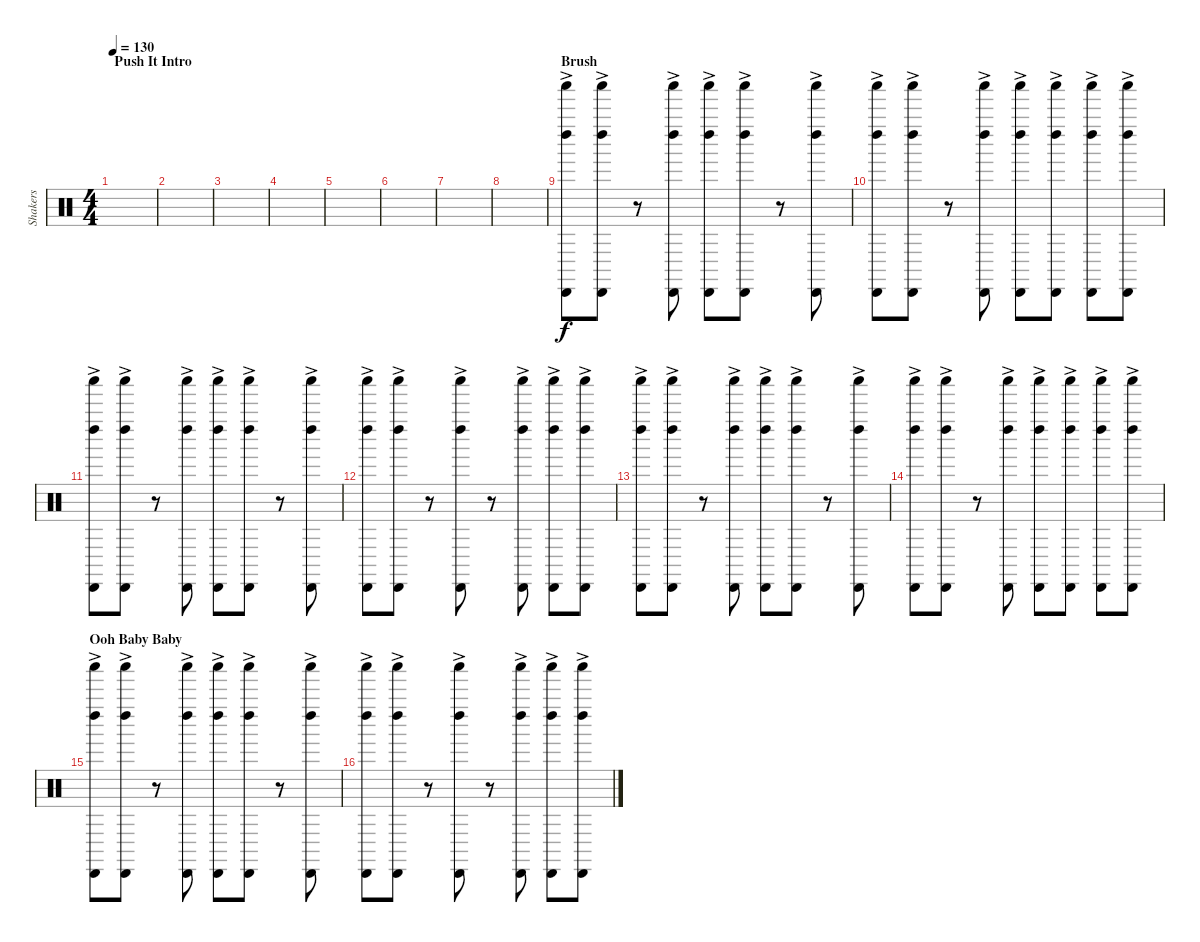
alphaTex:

\track ("Shakers" "Shakers") {instrument percussion}
\staff {score}
\articulation defaults
\ts (4 4)
\section ("" "Push It Intro")
\tempo 130
\clef neutral
\ks c
|
|
|
|
|
|
|
|
\section ("" "Brush")
("Cabasa (hit)"{ac} "Left Maraca (hit)"{ac} "Shaker (hit)"{ac}).8 ("Cabasa (hit)"{ac} "Left Maraca (hit)"{ac} "Shaker (hit)"{ac}).8 r.8 ("Cabasa (hit)"{ac} "Left Maraca (hit)"{ac} "Shaker (hit)"{ac}).8 ("Cabasa (hit)"{ac} "Left Maraca (hit)"{ac} "Shaker (hit)"{ac}).8 ("Cabasa (hit)"{ac} "Left Maraca (hit)"{ac} "Shaker (hit)"{ac}).8 r.8 ("Cabasa (hit)"{ac} "Left Maraca (hit)"{ac} "Shaker (hit)"{ac}).8 |
("Cabasa (hit)"{ac} "Left Maraca (hit)"{ac} "Shaker (hit)"{ac}).8 ("Cabasa (hit)"{ac} "Left Maraca (hit)"{ac} "Shaker (hit)"{ac}).8 r.8 ("Cabasa (hit)"{ac} "Left Maraca (hit)"{ac} "Shaker (hit)"{ac}).8 ("Cabasa (hit)"{ac} "Left Maraca (hit)"{ac} "Shaker (hit)"{ac}).8 ("Cabasa (hit)"{ac} "Left Maraca (hit)"{ac} "Shaker (hit)"{ac}).8 ("Cabasa (hit)"{ac} "Left Maraca (hit)"{ac} "Shaker (hit)"{ac}).8 ("Cabasa (hit)"{ac} "Left Maraca (hit)"{ac} "Shaker (hit)"{ac}).8 |
("Cabasa (hit)"{ac} "Left Maraca (hit)"{ac} "Shaker (hit)"{ac}).8 ("Cabasa (hit)"{ac} "Left Maraca (hit)"{ac} "Shaker (hit)"{ac}).8 r.8 ("Cabasa (hit)"{ac} "Left Maraca (hit)"{ac} "Shaker (hit)"{ac}).8 ("Cabasa (hit)"{ac} "Left Maraca (hit)"{ac} "Shaker (hit)"{ac}).8 ("Cabasa (hit)"{ac} "Left Maraca (hit)"{ac} "Shaker (hit)"{ac}).8 r.8 ("Cabasa (hit)"{ac} "Left Maraca (hit)"{ac} "Shaker (hit)"{ac}).8 |
("Cabasa (hit)"{ac} "Left Maraca (hit)"{ac} "Shaker (hit)"{ac}).8 ("Cabasa (hit)"{ac} "Left Maraca (hit)"{ac} "Shaker (hit)"{ac}).8 r.8 ("Cabasa (hit)"{ac} "Left Maraca (hit)"{ac} "Shaker (hit)"{ac}).8 r.8 ("Cabasa (hit)"{ac} "Left Maraca (hit)"{ac} "Shaker (hit)"{ac}).8 ("Cabasa (hit)"{ac} "Left Maraca (hit)"{ac} "Shaker (hit)"{ac}).8 ("Cabasa (hit)"{ac} "Left Maraca (hit)"{ac} "Shaker (hit)"{ac}).8 |
("Cabasa (hit)"{ac} "Left Maraca (hit)"{ac} "Shaker (hit)"{ac}).8 ("Cabasa (hit)"{ac} "Left Maraca (hit)"{ac} "Shaker (hit)"{ac}).8 r.8 ("Cabasa (hit)"{ac} "Left Maraca (hit)"{ac} "Shaker (hit)"{ac}).8 ("Cabasa (hit)"{ac} "Left Maraca (hit)"{ac} "Shaker (hit)"{ac}).8 ("Cabasa (hit)"{ac} "Left Maraca (hit)"{ac} "Shaker (hit)"{ac}).8 r.8 ("Cabasa (hit)"{ac} "Left Maraca (hit)"{ac} "Shaker (hit)"{ac}).8 |
("Cabasa (hit)"{ac} "Left Maraca (hit)"{ac} "Shaker (hit)"{ac}).8 ("Cabasa (hit)"{ac} "Left Maraca (hit)"{ac} "Shaker (hit)"{ac}).8 r.8 ("Cabasa (hit)"{ac} "Left Maraca (hit)"{ac} "Shaker (hit)"{ac}).8 ("Cabasa (hit)"{ac} "Left Maraca (hit)"{ac} "Shaker (hit)"{ac}).8 ("Cabasa (hit)"{ac} "Left Maraca (hit)"{ac} "Shaker (hit)"{ac}).8 ("Cabasa (hit)"{ac} "Left Maraca (hit)"{ac} "Shaker (hit)"{ac}).8 ("Cabasa (hit)"{ac} "Left Maraca (hit)"{ac} "Shaker (hit)"{ac}).8 |
\section ("" "Ooh Baby Baby")
("Cabasa (hit)"{ac} "Left Maraca (hit)"{ac} "Shaker (hit)"{ac}).8 ("Cabasa (hit)"{ac} "Left Maraca (hit)"{ac} "Shaker (hit)"{ac}).8 r.8 ("Cabasa (hit)"{ac} "Left Maraca (hit)"{ac} "Shaker (hit)"{ac}).8 ("Cabasa (hit)"{ac} "Left Maraca (hit)"{ac} "Shaker (hit)"{ac}).8 ("Cabasa (hit)"{ac} "Left Maraca (hit)"{ac} "Shaker (hit)"{ac}).8 r.8 ("Cabasa (hit)"{ac} "Left Maraca (hit)"{ac} "Shaker (hit)"{ac}).8 |
("Cabasa (hit)"{ac} "Left Maraca (hit)"{ac} "Shaker (hit)"{ac}).8 ("Cabasa (hit)"{ac} "Left Maraca (hit)"{ac} "Shaker (hit)"{ac}).8 r.8 ("Cabasa (hit)"{ac} "Left Maraca (hit)"{ac} "Shaker (hit)"{ac}).8 r.8 ("Cabasa (hit)"{ac} "Left Maraca (hit)"{ac} "Shaker (hit)"{ac}).8 ("Cabasa (hit)"{ac} "Left Maraca (hit)"{ac} "Shaker (hit)"{ac}).8 ("Cabasa (hit)"{ac} "Left Maraca (hit)"{ac} "Shaker (hit)"{ac}).8
